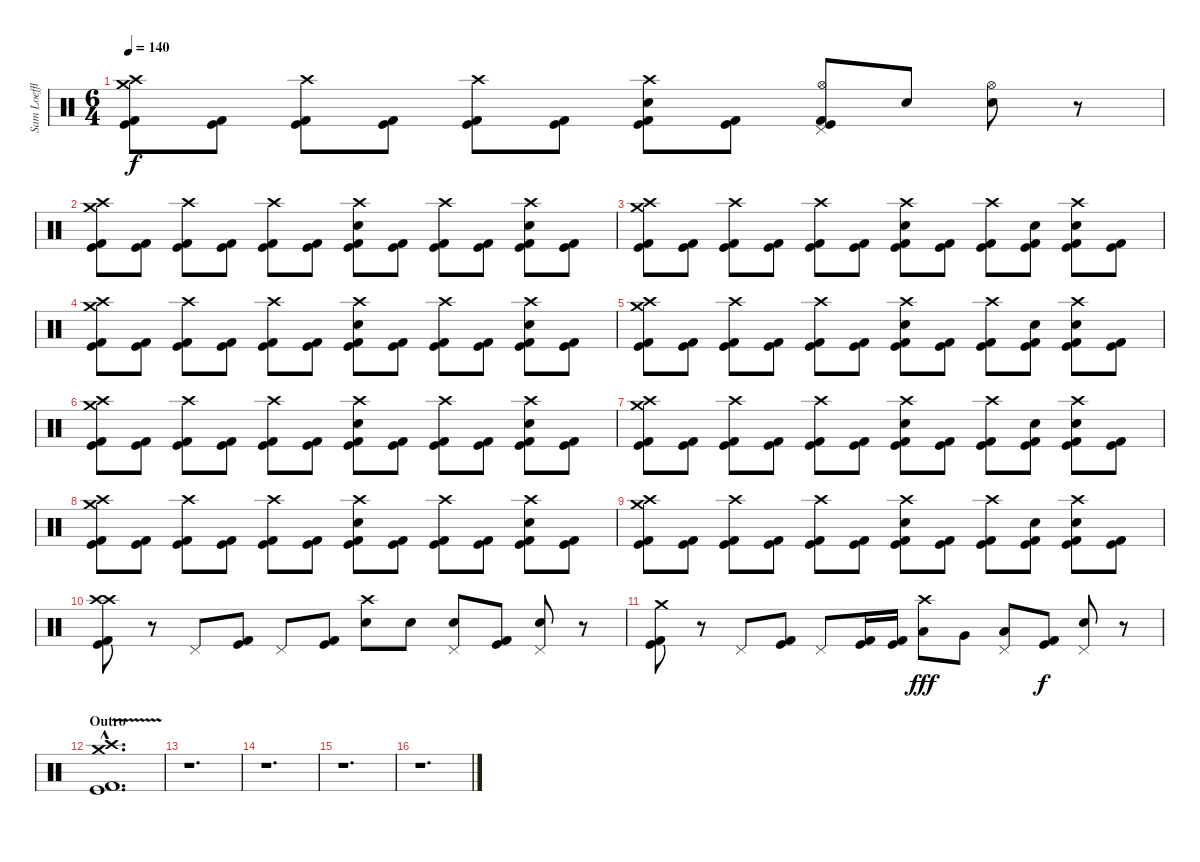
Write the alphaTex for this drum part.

\track ("Sam Loeffler - Drums" "Sam Loeffl") {instrument percussion}
\staff {score}
\articulation defaults
\ts (6 4)
\tempo 140
\clef neutral
\ks c
("Crash high (hit)" "Crash medium (hit)" "Kick (hit)" "Kick (hit) 2").8{dy f} ("Kick (hit)" "Kick (hit) 2").8 ("Crash high (hit)" "Kick (hit)" "Kick (hit) 2").8 ("Kick (hit)" "Kick (hit) 2").8 ("Crash high (hit)" "Kick (hit)" "Kick (hit) 2").8 ("Kick (hit)" "Kick (hit) 2").8 ("Crash high (hit)" "Electric Snare (hit)" "Kick (hit)" "Kick (hit) 2").8 ("Kick (hit)" "Kick (hit) 2").8 ("Hi-Hat (open)" "Pedal Hi-Hat (hit)" "Kick (hit)" "Kick (hit) 2").8 "Electric Snare (hit)".8 ("Hi-Hat (open)" "Electric Snare (hit)").8 r.8 |
("Crash high (hit)" "Crash medium (hit)" "Kick (hit)" "Kick (hit) 2").8 ("Kick (hit)" "Kick (hit) 2").8 ("Crash high (hit)" "Kick (hit)" "Kick (hit) 2").8 ("Kick (hit)" "Kick (hit) 2").8 ("Crash high (hit)" "Kick (hit)" "Kick (hit) 2").8 ("Kick (hit)" "Kick (hit) 2").8 ("Crash high (hit)" "Electric Snare (hit)" "Kick (hit)" "Kick (hit) 2").8 ("Kick (hit)" "Kick (hit) 2").8 ("Crash high (hit)" "Kick (hit)" "Kick (hit) 2").8 ("Kick (hit)" "Kick (hit) 2").8 ("Crash high (hit)" "Electric Snare (hit)" "Kick (hit)" "Kick (hit) 2").8 ("Kick (hit)" "Kick (hit) 2").8 |
("Crash high (hit)" "Crash medium (hit)" "Kick (hit)" "Kick (hit) 2").8 ("Kick (hit)" "Kick (hit) 2").8 ("Crash high (hit)" "Kick (hit)" "Kick (hit) 2").8 ("Kick (hit)" "Kick (hit) 2").8 ("Crash high (hit)" "Kick (hit)" "Kick (hit) 2").8 ("Kick (hit)" "Kick (hit) 2").8 ("Crash high (hit)" "Electric Snare (hit)" "Kick (hit)" "Kick (hit) 2").8 ("Kick (hit)" "Kick (hit) 2").8 ("Crash high (hit)" "Kick (hit)" "Kick (hit) 2").8 ("Electric Snare (hit)" "Kick (hit)" "Kick (hit) 2").8 ("Crash high (hit)" "Electric Snare (hit)" "Kick (hit)" "Kick (hit) 2").8 ("Kick (hit)" "Kick (hit) 2").8 |
("Crash high (hit)" "Crash medium (hit)" "Kick (hit)" "Kick (hit) 2").8 ("Kick (hit)" "Kick (hit) 2").8 ("Crash high (hit)" "Kick (hit)" "Kick (hit) 2").8 ("Kick (hit)" "Kick (hit) 2").8 ("Crash high (hit)" "Kick (hit)" "Kick (hit) 2").8 ("Kick (hit)" "Kick (hit) 2").8 ("Crash high (hit)" "Electric Snare (hit)" "Kick (hit)" "Kick (hit) 2").8 ("Kick (hit)" "Kick (hit) 2").8 ("Crash high (hit)" "Kick (hit)" "Kick (hit) 2").8 ("Kick (hit)" "Kick (hit) 2").8 ("Crash high (hit)" "Electric Snare (hit)" "Kick (hit)" "Kick (hit) 2").8 ("Kick (hit)" "Kick (hit) 2").8 |
("Crash high (hit)" "Crash medium (hit)" "Kick (hit)" "Kick (hit) 2").8 ("Kick (hit)" "Kick (hit) 2").8 ("Crash high (hit)" "Kick (hit)" "Kick (hit) 2").8 ("Kick (hit)" "Kick (hit) 2").8 ("Crash high (hit)" "Kick (hit)" "Kick (hit) 2").8 ("Kick (hit)" "Kick (hit) 2").8 ("Crash high (hit)" "Electric Snare (hit)" "Kick (hit)" "Kick (hit) 2").8 ("Kick (hit)" "Kick (hit) 2").8 ("Crash high (hit)" "Kick (hit)" "Kick (hit) 2").8 ("Electric Snare (hit)" "Kick (hit)" "Kick (hit) 2").8 ("Crash high (hit)" "Electric Snare (hit)" "Kick (hit)" "Kick (hit) 2").8 ("Kick (hit)" "Kick (hit) 2").8 |
("Crash high (hit)" "Crash medium (hit)" "Kick (hit)" "Kick (hit) 2").8 ("Kick (hit)" "Kick (hit) 2").8 ("Crash high (hit)" "Kick (hit)" "Kick (hit) 2").8 ("Kick (hit)" "Kick (hit) 2").8 ("Crash high (hit)" "Kick (hit)" "Kick (hit) 2").8 ("Kick (hit)" "Kick (hit) 2").8 ("Crash high (hit)" "Electric Snare (hit)" "Kick (hit)" "Kick (hit) 2").8 ("Kick (hit)" "Kick (hit) 2").8 ("Crash high (hit)" "Kick (hit)" "Kick (hit) 2").8 ("Kick (hit)" "Kick (hit) 2").8 ("Crash high (hit)" "Electric Snare (hit)" "Kick (hit)" "Kick (hit) 2").8 ("Kick (hit)" "Kick (hit) 2").8 |
("Crash high (hit)" "Crash medium (hit)" "Kick (hit)" "Kick (hit) 2").8 ("Kick (hit)" "Kick (hit) 2").8 ("Crash high (hit)" "Kick (hit)" "Kick (hit) 2").8 ("Kick (hit)" "Kick (hit) 2").8 ("Crash high (hit)" "Kick (hit)" "Kick (hit) 2").8 ("Kick (hit)" "Kick (hit) 2").8 ("Crash high (hit)" "Electric Snare (hit)" "Kick (hit)" "Kick (hit) 2").8 ("Kick (hit)" "Kick (hit) 2").8 ("Crash high (hit)" "Kick (hit)" "Kick (hit) 2").8 ("Electric Snare (hit)" "Kick (hit)" "Kick (hit) 2").8 ("Crash high (hit)" "Electric Snare (hit)" "Kick (hit)" "Kick (hit) 2").8 ("Kick (hit)" "Kick (hit) 2").8 |
("Crash high (hit)" "Crash medium (hit)" "Kick (hit)" "Kick (hit) 2").8 ("Kick (hit)" "Kick (hit) 2").8 ("Crash high (hit)" "Kick (hit)" "Kick (hit) 2").8 ("Kick (hit)" "Kick (hit) 2").8 ("Crash high (hit)" "Kick (hit)" "Kick (hit) 2").8 ("Kick (hit)" "Kick (hit) 2").8 ("Crash high (hit)" "Electric Snare (hit)" "Kick (hit)" "Kick (hit) 2").8 ("Kick (hit)" "Kick (hit) 2").8 ("Crash high (hit)" "Kick (hit)" "Kick (hit) 2").8 ("Kick (hit)" "Kick (hit) 2").8 ("Crash high (hit)" "Electric Snare (hit)" "Kick (hit)" "Kick (hit) 2").8 ("Kick (hit)" "Kick (hit) 2").8 |
("Crash high (hit)" "Crash medium (hit)" "Kick (hit)" "Kick (hit) 2").8 ("Kick (hit)" "Kick (hit) 2").8 ("Crash high (hit)" "Kick (hit)" "Kick (hit) 2").8 ("Kick (hit)" "Kick (hit) 2").8 ("Crash high (hit)" "Kick (hit)" "Kick (hit) 2").8 ("Kick (hit)" "Kick (hit) 2").8 ("Crash high (hit)" "Electric Snare (hit)" "Kick (hit)" "Kick (hit) 2").8 ("Kick (hit)" "Kick (hit) 2").8 ("Crash high (hit)" "Kick (hit)" "Kick (hit) 2").8 ("Electric Snare (hit)" "Kick (hit)" "Kick (hit) 2").8 ("Crash high (hit)" "Electric Snare (hit)" "Kick (hit)" "Kick (hit) 2").8 ("Kick (hit)" "Kick (hit) 2").8 |
("Crash high (hit)" "Crash high (hit)" "Kick (hit)" "Kick (hit) 2").8 r.8 "Pedal Hi-Hat (hit)".8 ("Kick (hit)" "Kick (hit) 2").8 "Pedal Hi-Hat (hit)".8 ("Kick (hit)" "Kick (hit) 2").8 ("Crash high (hit)" "Electric Snare (hit)").8 "Electric Snare (hit)".8 ("Pedal Hi-Hat (hit)" "Electric Snare (hit)").8 ("Kick (hit)" "Kick (hit) 2").8 ("Pedal Hi-Hat (hit)" "Electric Snare (hit)").8 r.8 |
("Crash medium (hit)" "Kick (hit)" "Kick (hit) 2").8 r.8 "Pedal Hi-Hat (hit)".8 ("Kick (hit)" "Kick (hit) 2").8 "Pedal Hi-Hat (hit)".8 ("Kick (hit)" "Kick (hit) 2").16 ("Kick (hit)" "Kick (hit) 2").16 ("Crash high (hit)" "Low Tom (hit)").8{dy fff} "Very Low Tom (hit)".8 ("Pedal Hi-Hat (hit)" "Low Floor Tom (hit)").8 ("Kick (hit)" "Kick (hit) 2").8{dy f} ("Pedal Hi-Hat (hit)" "Electric Snare (hit)").8 r.8 |
\section ("" "Outro")
("Crash high (hit)"{v hac} "Crash medium (hit)"{hac} "Kick (hit)"{hac} "Kick (hit) 2"{hac}).1{d} |
r.1{d} |
r.1{d} |
r.1{d} |
r.1{d}
